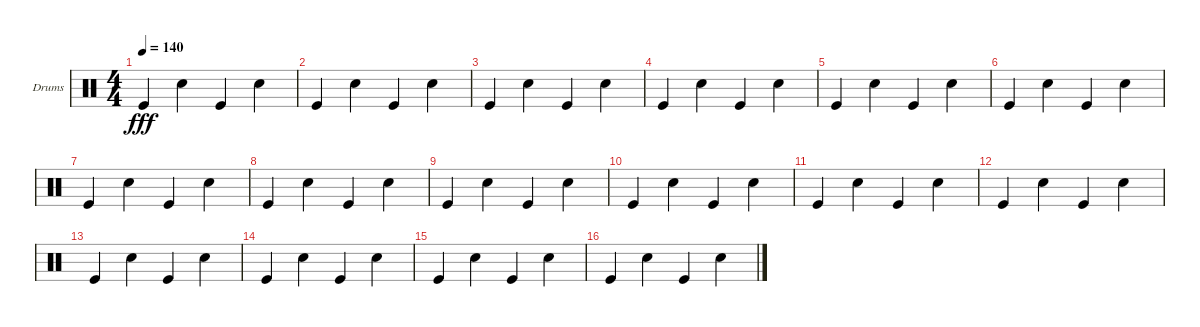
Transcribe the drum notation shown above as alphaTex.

\bracketExtendMode groupsimilarinstruments
\firstSystemTrackNameOrientation horizontal
\otherSystemsTrackNameOrientation horizontal
\track ("Drumkit" "Drums") {instrument percussion}
\staff {score}
\articulation defaults
\ts (4 4)
\tempo 140
\clef neutral
\ks c "Kick (hit)".4{dy fff} "Snare (hit) 2".4 "Kick (hit)".4 "Snare (hit) 2".4
|
"Kick (hit)".4 "Snare (hit) 2".4 "Kick (hit)".4 "Snare (hit) 2".4 |
"Kick (hit)".4 "Snare (hit) 2".4 "Kick (hit)".4 "Snare (hit) 2".4 |
"Kick (hit)".4 "Snare (hit) 2".4 "Kick (hit)".4 "Snare (hit) 2".4 |
"Kick (hit)".4 "Snare (hit) 2".4 "Kick (hit)".4 "Snare (hit) 2".4 |
"Kick (hit)".4 "Snare (hit) 2".4 "Kick (hit)".4 "Snare (hit) 2".4 |
"Kick (hit)".4 "Snare (hit) 2".4 "Kick (hit)".4 "Snare (hit) 2".4 |
"Kick (hit)".4 "Snare (hit) 2".4 "Kick (hit)".4 "Snare (hit) 2".4 |
"Kick (hit)".4 "Snare (hit) 2".4 "Kick (hit)".4 "Snare (hit) 2".4 |
"Kick (hit)".4 "Snare (hit) 2".4 "Kick (hit)".4 "Snare (hit) 2".4 |
"Kick (hit)".4 "Snare (hit) 2".4 "Kick (hit)".4 "Snare (hit) 2".4 |
"Kick (hit)".4 "Snare (hit) 2".4 "Kick (hit)".4 "Snare (hit) 2".4 |
"Kick (hit)".4 "Snare (hit) 2".4 "Kick (hit)".4 "Snare (hit) 2".4 |
"Kick (hit)".4 "Snare (hit) 2".4 "Kick (hit)".4 "Snare (hit) 2".4 |
"Kick (hit)".4 "Snare (hit) 2".4 "Kick (hit)".4 "Snare (hit) 2".4 |
"Kick (hit)".4 "Snare (hit) 2".4 "Kick (hit)".4 "Snare (hit) 2".4
